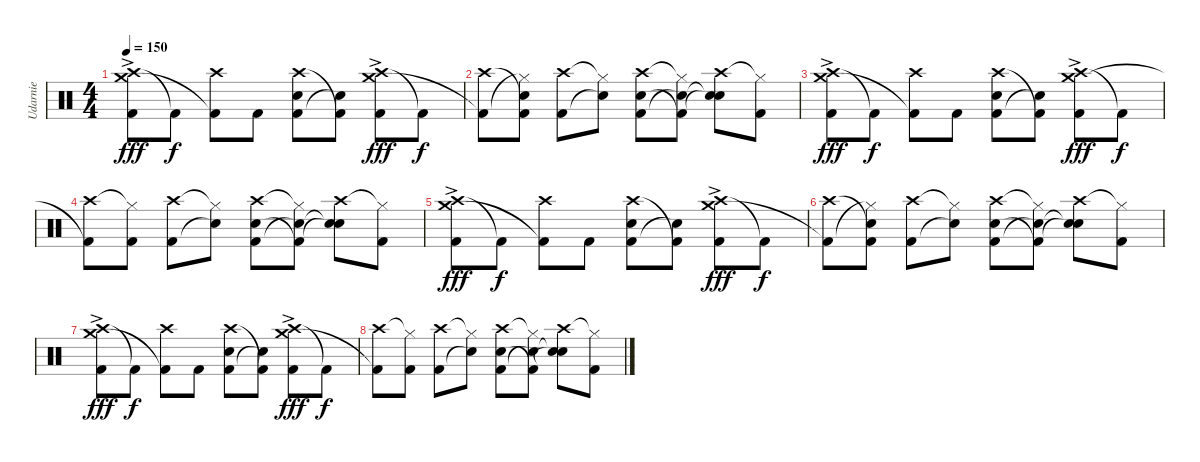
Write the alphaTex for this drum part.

\track ("Udarnie" "Udarnie") {instrument percussion}
\staff {score}
\articulation defaults
\ts (4 4)
\tempo 150
\clef neutral
\ks c
("Crash high (hit)" "Crash medium (hit)"{ac} "Kick (hit) 2").8{dy fff} "Kick (hit) 2"{t}.8{dy f} ("Crash high (hit)" "Kick (hit) 2"{t}).8 "Kick (hit) 2".8 ("Crash high (hit)" "Kick (hit) 2" "Snare (hit) 2").8 ("Kick (hit) 2"{t} "Snare (hit) 2"{t}).8 ("Crash high (hit)" "Crash medium (hit)"{ac} "Kick (hit) 2").8{dy fff} "Kick (hit) 2"{t}.8{dy f} |
("Crash high (hit)" "Kick (hit) 2"{t}).8 ("Snare (hit)"{t} "Hi-Hat (closed)"{t} "Kick (hit) 2").8 ("Crash high (hit)" "Kick (hit) 2").8 ("Hi-Hat (closed)"{t} "Snare (hit)"{t}).8 ("Crash high (hit)" "Snare (hit) 2" "Kick (hit) 2").8 ("Hi-Hat (closed)"{t} "Kick (hit) 2"{t} "Snare (hit) 2"{t}).8 ("Crash high (hit)" "Snare (hit)"{t} "Snare (hit)"{t}).8 ("Hi-Hat (closed)"{t} "Kick (hit) 2").8 |
("Crash high (hit)" "Crash medium (hit)"{ac} "Kick (hit) 2").8{dy fff} "Kick (hit) 2"{t}.8{dy f} ("Crash high (hit)" "Kick (hit) 2"{t}).8 "Kick (hit) 2".8 ("Crash high (hit)" "Kick (hit) 2" "Snare (hit) 2").8 ("Kick (hit) 2"{t} "Snare (hit) 2"{t}).8 ("Crash high (hit)" "Crash medium (hit)"{ac} "Kick (hit) 2").8{dy fff} "Kick (hit) 2"{t}.8{dy f} |
("Crash high (hit)" "Kick (hit) 2"{t}).8 ("Hi-Hat (closed)"{t} "Kick (hit) 2").8 ("Crash high (hit)" "Kick (hit) 2").8 ("Hi-Hat (closed)"{t} "Snare (hit)"{t}).8 ("Crash high (hit)" "Snare (hit) 2" "Kick (hit) 2").8 ("Hi-Hat (closed)"{t} "Kick (hit) 2"{t} "Snare (hit) 2"{t}).8 ("Crash high (hit)" "Snare (hit)"{t} "Snare (hit)"{t}).8 ("Hi-Hat (closed)"{t} "Kick (hit) 2").8 |
("Crash high (hit)" "Crash medium (hit)"{ac} "Kick (hit) 2").8{dy fff} "Kick (hit) 2"{t}.8{dy f} ("Crash high (hit)" "Kick (hit) 2"{t}).8 "Kick (hit) 2".8 ("Crash high (hit)" "Kick (hit) 2" "Snare (hit) 2").8 ("Kick (hit) 2"{t} "Snare (hit) 2"{t}).8 ("Crash high (hit)" "Crash medium (hit)"{ac} "Kick (hit) 2").8{dy fff} "Kick (hit) 2"{t}.8{dy f} |
("Crash high (hit)" "Kick (hit) 2"{t}).8 ("Snare (hit)"{t} "Hi-Hat (closed)"{t} "Kick (hit) 2").8 ("Crash high (hit)" "Kick (hit) 2").8 ("Hi-Hat (closed)"{t} "Snare (hit)"{t}).8 ("Crash high (hit)" "Snare (hit) 2" "Kick (hit) 2").8 ("Hi-Hat (closed)"{t} "Kick (hit) 2"{t} "Snare (hit) 2"{t}).8 ("Crash high (hit)" "Snare (hit)"{t} "Snare (hit)"{t}).8 ("Hi-Hat (closed)"{t} "Kick (hit) 2").8 |
("Crash high (hit)" "Crash medium (hit)"{ac} "Kick (hit) 2").8{dy fff} "Kick (hit) 2"{t}.8{dy f} ("Crash high (hit)" "Kick (hit) 2"{t}).8 "Kick (hit) 2".8 ("Crash high (hit)" "Kick (hit) 2" "Snare (hit) 2").8 ("Kick (hit) 2"{t} "Snare (hit) 2"{t}).8 ("Crash high (hit)" "Crash medium (hit)"{ac} "Kick (hit) 2").8{dy fff} "Kick (hit) 2"{t}.8{dy f} |
("Crash high (hit)" "Kick (hit) 2"{t}).8 ("Hi-Hat (closed)"{t} "Kick (hit) 2").8 ("Crash high (hit)" "Kick (hit) 2").8 ("Hi-Hat (closed)"{t} "Snare (hit)"{t}).8 ("Crash high (hit)" "Snare (hit) 2" "Kick (hit) 2").8 ("Hi-Hat (closed)"{t} "Kick (hit) 2"{t} "Snare (hit) 2"{t}).8 ("Crash high (hit)" "Snare (hit)"{t} "Snare (hit)"{t}).8 ("Hi-Hat (closed)"{t} "Kick (hit) 2").8
